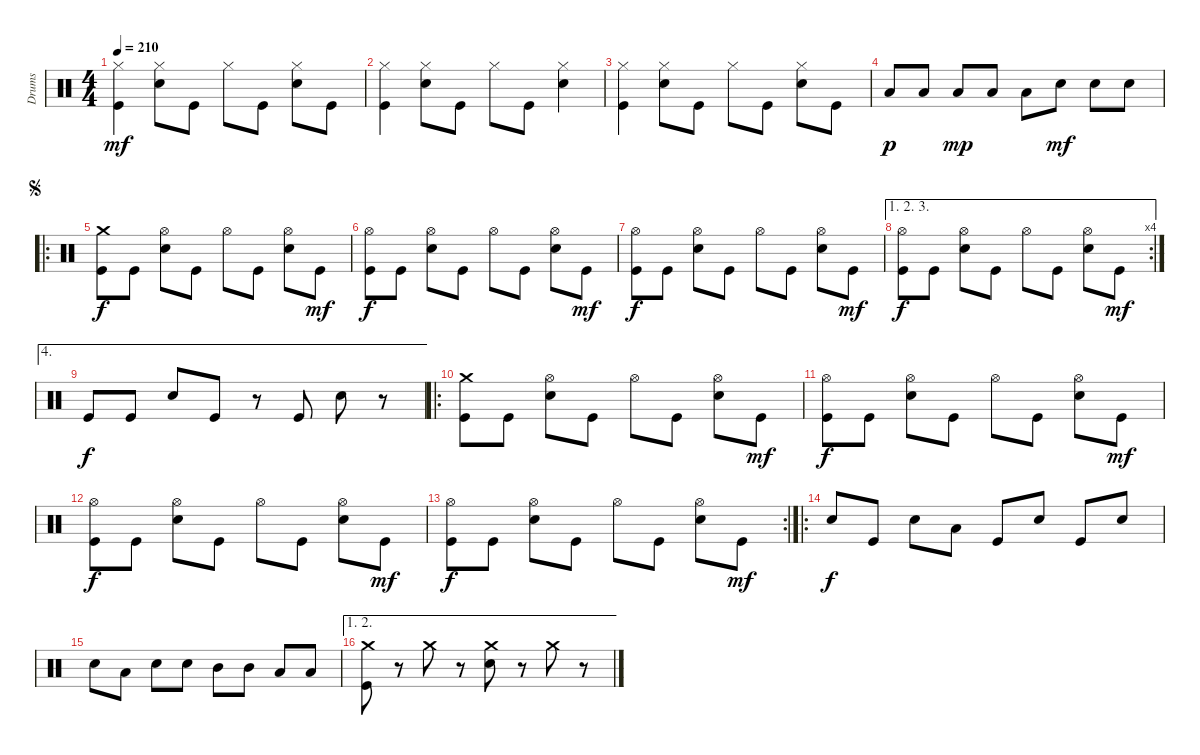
\bracketExtendMode groupsimilarinstruments
\otherSystemsTrackNameOrientation horizontal
\track ("Drumkit" "Drums") {multiBarRest instrument percussion}
\staff {score}
\articulation defaults
\ts (4 4)
\beaming (8 2 2 2 2)
\tempo 210
\clef neutral
\ks c
("Hi-Hat (closed)" "Kick (hit)").4{dy mf} ("Hi-Hat (closed)" "Snare (hit) 2").8 "Kick (hit)".8 "Hi-Hat (closed)".8 "Kick (hit)".8 ("Hi-Hat (closed)" "Snare (hit) 2").8 "Kick (hit)".8 |
("Hi-Hat (closed)" "Kick (hit)").4 ("Hi-Hat (closed)" "Snare (hit) 2").8 "Kick (hit)".8 "Hi-Hat (closed)".8 "Kick (hit)".8 ("Hi-Hat (closed)" "Snare (hit) 2").4 |
("Hi-Hat (closed)" "Kick (hit)").4 ("Hi-Hat (closed)" "Snare (hit) 2").8 "Kick (hit)".8 "Hi-Hat (closed)".8 "Kick (hit)".8 ("Hi-Hat (closed)" "Snare (hit) 2").8 "Kick (hit)".8 |
"Low Tom (hit)".8{dy p} "Low Tom (hit)".8 "Low Tom (hit)".8{dy mp} "Low Tom (hit)".8 "Low Tom (hit)".8 "Snare (hit) 2".8{dy mf} "Snare (hit) 2".8 "Snare (hit) 2".8 |
\ro
\jump segno
("Crash medium (hit)" "Kick (hit)").8{dy f} "Kick (hit)".8 ("Hi-Hat (open)" "Snare (hit) 2").8 "Kick (hit)".8 "Hi-Hat (open)".8 "Kick (hit)".8 ("Hi-Hat (open)" "Snare (hit) 2").8 "Kick (hit)".8{dy mf} |
("Hi-Hat (open)" "Kick (hit)").8{dy f} "Kick (hit)".8 ("Hi-Hat (open)" "Snare (hit) 2").8 "Kick (hit)".8 "Hi-Hat (open)".8 "Kick (hit)".8 ("Hi-Hat (open)" "Snare (hit) 2").8 "Kick (hit)".8{dy mf} |
("Hi-Hat (open)" "Kick (hit)").8{dy f} "Kick (hit)".8 ("Hi-Hat (open)" "Snare (hit) 2").8 "Kick (hit)".8 "Hi-Hat (open)".8 "Kick (hit)".8 ("Hi-Hat (open)" "Snare (hit) 2").8 "Kick (hit)".8{dy mf} |
\ae (1 2 3)
\rc 4
("Hi-Hat (open)" "Kick (hit)").8{dy f} "Kick (hit)".8 ("Hi-Hat (open)" "Snare (hit) 2").8 "Kick (hit)".8 "Hi-Hat (open)".8 "Kick (hit)".8 ("Hi-Hat (open)" "Snare (hit) 2").8 "Kick (hit)".8{dy mf} |
\ae 4 "Kick (hit)".8{dy f} "Kick (hit)".8 "Snare (hit) 2".8 "Kick (hit)".8
r.8 "Kick (hit)".8 "Snare (hit) 2".8 r.8 |
\ro
("Crash medium (hit)" "Kick (hit)").8 "Kick (hit)".8 ("Hi-Hat (open)" "Snare (hit) 2").8 "Kick (hit)".8 "Hi-Hat (open)".8 "Kick (hit)".8 ("Hi-Hat (open)" "Snare (hit) 2").8 "Kick (hit)".8{dy mf} |
("Hi-Hat (open)" "Kick (hit)").8{dy f} "Kick (hit)".8 ("Hi-Hat (open)" "Snare (hit) 2").8 "Kick (hit)".8 "Hi-Hat (open)".8 "Kick (hit)".8 ("Hi-Hat (open)" "Snare (hit) 2").8 "Kick (hit)".8{dy mf} |
("Hi-Hat (open)" "Kick (hit)").8{dy f} "Kick (hit)".8 ("Hi-Hat (open)" "Snare (hit) 2").8 "Kick (hit)".8 "Hi-Hat (open)".8 "Kick (hit)".8 ("Hi-Hat (open)" "Snare (hit) 2").8 "Kick (hit)".8{dy mf} |
\rc 2
("Hi-Hat (open)" "Kick (hit)").8{dy f} "Kick (hit)".8 ("Hi-Hat (open)" "Snare (hit) 2").8 "Kick (hit)".8 "Hi-Hat (open)".8 "Kick (hit)".8 ("Hi-Hat (open)" "Snare (hit) 2").8 "Kick (hit)".8{dy mf} |
\ro "Snare (hit) 2".8{dy f} "Kick (hit)".8 "Snare (hit) 2".8 "Low Tom (hit)".8 "Kick (hit)".8 "Snare (hit) 2".8 "Kick (hit)".8 "Snare (hit) 2".8
|
"Snare (hit) 2".8 "Low Tom (hit)".8 "Snare (hit) 2".8 "Snare (hit) 2".8 "Mid Tom (hit)".8 "Mid Tom (hit)".8 "Low Tom (hit)".8 "Low Tom (hit)".8 |
\ae (1 2)
("Crash medium (hit)" "Kick (hit)").8 r.8 "Crash medium (hit)".8 r.8 ("Crash medium (hit)" "Snare (hit) 2").8 r.8 "Crash medium (hit)".8 r.8
